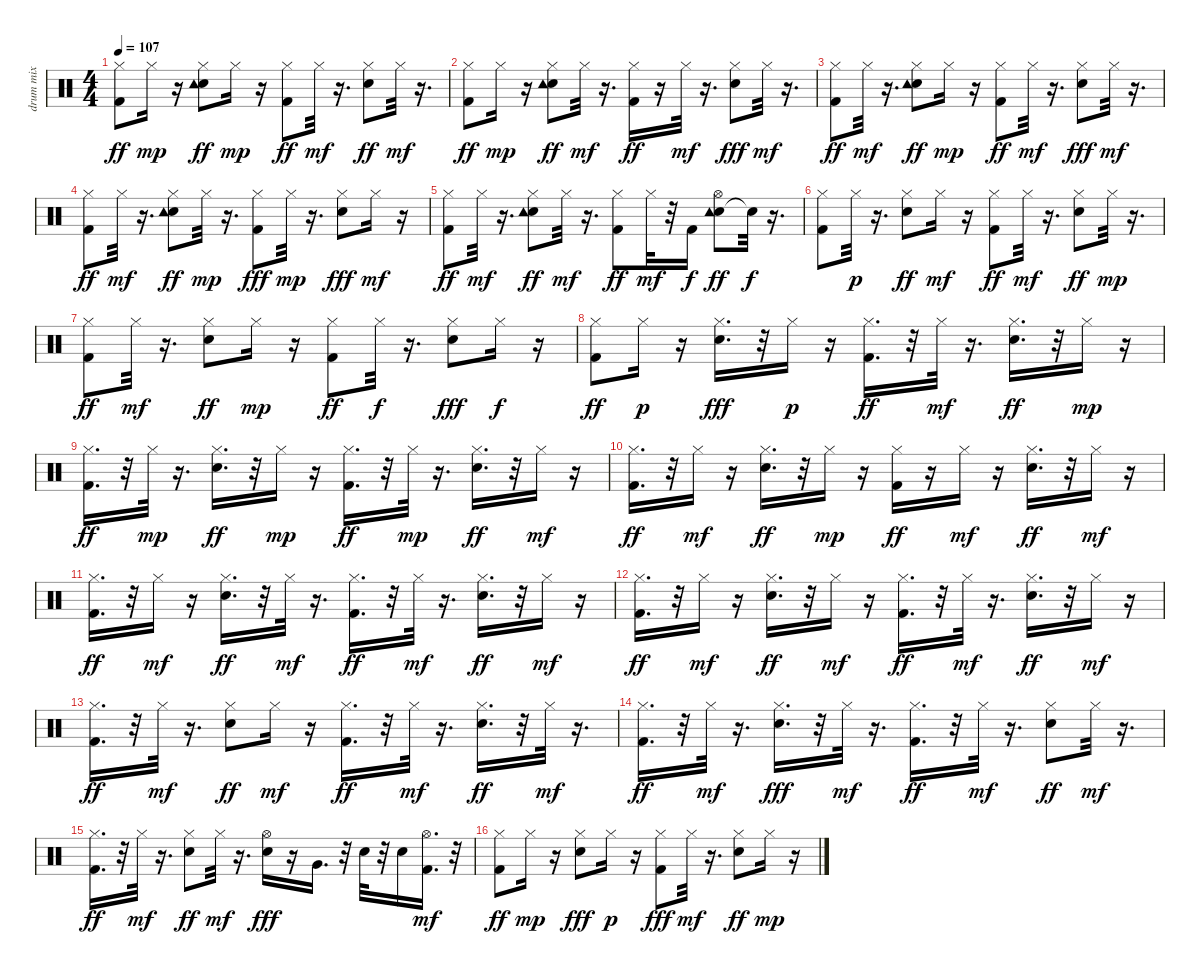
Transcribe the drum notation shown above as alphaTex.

\track ("drum mix" "drum mix") {instrument percussion}
\staff {score}
\articulation defaults
\ts (4 4)
\tempo 107
\clef neutral
\ks c
("Kick (hit) 2" "Hi-Hat (closed)").8{dy ff} "Hi-Hat (closed)".16{dy mp} r.16 ("Electric Snare (hit)" "Hi-Hat (closed)" "Tambourine (hit)").8{dy ff} "Hi-Hat (closed)".16{dy mp} r.16 ("Kick (hit) 2" "Hi-Hat (closed)").8{dy ff} "Hi-Hat (closed)".32{dy mf} r.16{d} ("Electric Snare (hit)" "Hi-Hat (closed)").8{dy ff} "Hi-Hat (closed)".32{dy mf} r.16{d} |
("Kick (hit) 2" "Hi-Hat (closed)").8{dy ff} "Hi-Hat (closed)".16{dy mp} r.16 ("Electric Snare (hit)" "Hi-Hat (closed)" "Tambourine (hit)").8{dy ff} "Hi-Hat (closed)".32{dy mf} r.16{d} ("Kick (hit) 2" "Hi-Hat (closed)").16{dy ff} r.16 "Hi-Hat (closed)".32{dy mf} r.16{d} ("Electric Snare (hit)" "Hi-Hat (closed)").8{dy fff} "Hi-Hat (closed)".32{dy mf} r.16{d} |
("Kick (hit) 2" "Hi-Hat (closed)").8{dy ff} "Hi-Hat (closed)".32{dy mf} r.16{d} ("Electric Snare (hit)" "Hi-Hat (closed)" "Tambourine (hit)").8{dy ff} "Hi-Hat (closed)".16{dy mp} r.16 ("Kick (hit) 2" "Hi-Hat (closed)").8{dy ff} "Hi-Hat (closed)".32{dy mf} r.16{d} ("Electric Snare (hit)" "Hi-Hat (closed)").8{dy fff} "Hi-Hat (closed)".32{dy mf} r.16{d} |
("Kick (hit) 2" "Hi-Hat (closed)").8{dy ff} "Hi-Hat (closed)".32{dy mf} r.16{d} ("Electric Snare (hit)" "Hi-Hat (closed)" "Tambourine (hit)").8{dy ff} "Hi-Hat (closed)".32{dy mp} r.16{d} ("Kick (hit) 2" "Hi-Hat (closed)").8{dy fff} "Hi-Hat (closed)".32{dy mp} r.16{d} ("Electric Snare (hit)" "Hi-Hat (closed)").8{dy fff} "Hi-Hat (closed)".16{dy mf} r.16 |
("Kick (hit) 2" "Hi-Hat (closed)").8{dy ff} "Hi-Hat (closed)".32{dy mf} r.16{d} ("Electric Snare (hit)" "Hi-Hat (closed)" "Tambourine (hit)").8{dy ff} "Hi-Hat (closed)".32{dy mf} r.16{d} ("Kick (hit) 2" "Hi-Hat (closed)").8{dy ff} "Hi-Hat (closed)".32{dy mf} r.32 "Kick (hit) 2".16{dy f} ("Electric Snare (hit)" "Hi-Hat (open)" "Tambourine (hit)").8{dy ff} "Snare (hit)"{t}.32{dy f} r.16{d} |
("Kick (hit) 2" "Hi-Hat (closed)").8 "Hi-Hat (closed)".32{dy p} r.16{d} ("Electric Snare (hit)" "Hi-Hat (closed)").8{dy ff} "Hi-Hat (closed)".16{dy mf} r.16 ("Kick (hit) 2" "Hi-Hat (closed)").8{dy ff} "Hi-Hat (closed)".32{dy mf} r.16{d} ("Electric Snare (hit)" "Hi-Hat (closed)").8{dy ff} "Hi-Hat (closed)".32{dy mp} r.16{d} |
("Kick (hit) 2" "Hi-Hat (closed)").8{dy ff} "Hi-Hat (closed)".32{dy mf} r.16{d} ("Electric Snare (hit)" "Hi-Hat (closed)").8{dy ff} "Hi-Hat (closed)".16{dy mp} r.16 ("Kick (hit) 2" "Hi-Hat (closed)").8{dy ff} "Hi-Hat (closed)".32{dy f} r.16{d} ("Electric Snare (hit)" "Hi-Hat (closed)").8{dy fff} "Hi-Hat (closed)".16{dy f} r.16 |
("Hi-Hat (closed)" "Kick (hit) 2").8{dy ff} "Hi-Hat (closed)".16{dy p} r.16 ("Electric Snare (hit)" "Hi-Hat (closed)").16{d dy fff} r.32 "Hi-Hat (closed)".16{dy p} r.16 ("Kick (hit) 2" "Hi-Hat (closed)").16{d dy ff} r.32 "Hi-Hat (closed)".32{dy mf} r.16{d} ("Electric Snare (hit)" "Hi-Hat (closed)").16{d dy ff} r.32 "Hi-Hat (closed)".16{dy mp} r.16 |
("Kick (hit) 2" "Hi-Hat (closed)").16{d dy ff} r.32 "Hi-Hat (closed)".32{dy mp} r.16{d} ("Electric Snare (hit)" "Hi-Hat (closed)").16{d dy ff} r.32 "Hi-Hat (closed)".16{dy mp} r.16 ("Kick (hit) 2" "Hi-Hat (closed)").16{d dy ff} r.32 "Hi-Hat (closed)".32{dy mp} r.16{d} ("Electric Snare (hit)" "Hi-Hat (closed)").16{d dy ff} r.32 "Hi-Hat (closed)".16{dy mf} r.16 |
("Kick (hit) 2" "Hi-Hat (closed)").16{d dy ff} r.32 "Hi-Hat (closed)".16{dy mf} r.16 ("Electric Snare (hit)" "Hi-Hat (closed)").16{d dy ff} r.32 "Hi-Hat (closed)".16{dy mp} r.16 ("Kick (hit) 2" "Hi-Hat (closed)").16{dy ff} r.16 "Hi-Hat (closed)".16{dy mf} r.16 ("Electric Snare (hit)" "Hi-Hat (closed)").16{d dy ff} r.32 "Hi-Hat (closed)".16{dy mf} r.16 |
("Kick (hit) 2" "Hi-Hat (closed)").16{d dy ff} r.32 "Hi-Hat (closed)".16{dy mf} r.16 ("Electric Snare (hit)" "Hi-Hat (closed)").16{d dy ff} r.32 "Hi-Hat (closed)".32{dy mf} r.16{d} ("Kick (hit) 2" "Hi-Hat (closed)").16{d dy ff} r.32 "Hi-Hat (closed)".32{dy mf} r.16{d} ("Electric Snare (hit)" "Hi-Hat (closed)").16{d dy ff} r.32 "Hi-Hat (closed)".16{dy mf} r.16 |
("Kick (hit) 2" "Hi-Hat (closed)").16{d dy ff} r.32 "Hi-Hat (closed)".16{dy mf} r.16 ("Electric Snare (hit)" "Hi-Hat (closed)").16{d dy ff} r.32 "Hi-Hat (closed)".16{dy mf} r.16 ("Kick (hit) 2" "Hi-Hat (closed)").16{d dy ff} r.32 "Hi-Hat (closed)".32{dy mf} r.16{d} ("Electric Snare (hit)" "Hi-Hat (closed)").16{d dy ff} r.32 "Hi-Hat (closed)".16{dy mf} r.16 |
("Kick (hit) 2" "Hi-Hat (closed)").16{d dy ff} r.32 "Hi-Hat (closed)".32{dy mf} r.16{d} ("Electric Snare (hit)" "Hi-Hat (closed)").8{dy ff} "Hi-Hat (closed)".16{dy mf} r.16 ("Kick (hit) 2" "Hi-Hat (closed)").16{d dy ff} r.32 "Hi-Hat (closed)".32{dy mf} r.16{d} ("Electric Snare (hit)" "Hi-Hat (closed)").16{d dy ff} r.32 "Hi-Hat (closed)".32{dy mf} r.16{d} |
("Kick (hit) 2" "Hi-Hat (closed)").16{d dy ff} r.32 "Hi-Hat (closed)".32{dy mf} r.16{d} ("Electric Snare (hit)" "Hi-Hat (closed)").16{d dy fff} r.32 "Hi-Hat (closed)".32{dy mf} r.16{d} ("Kick (hit) 2" "Hi-Hat (closed)").16{d dy ff} r.32 "Hi-Hat (closed)".32{dy mf} r.16{d} ("Electric Snare (hit)" "Hi-Hat (closed)").8{dy ff} "Hi-Hat (closed)".32{dy mf} r.16{d} |
("Kick (hit) 2" "Hi-Hat (closed)").16{d dy ff} r.32 "Hi-Hat (closed)".32{dy mf} r.16{d} ("Electric Snare (hit)" "Hi-Hat (closed)").8{dy ff} "Hi-Hat (closed)".32{dy mf} r.16{d} ("Electric Snare (hit)" "Hi-Hat (open)").16{dy fff} r.16 "Very Low Tom (hit)".16{d} r.32 "Electric Snare (hit)".32 r.32 "Electric Snare (hit)".16 ("Kick (hit) 2" "Hi-Hat (open)").16{d dy mf} r.32 |
("Kick (hit) 2" "Hi-Hat (closed)").8{dy ff} "Hi-Hat (closed)".16{dy mp} r.16 ("Electric Snare (hit)" "Hi-Hat (closed)").8{dy fff} "Hi-Hat (closed)".16{dy p} r.16 ("Kick (hit) 2" "Hi-Hat (closed)").8{dy fff} "Hi-Hat (closed)".32{dy mf} r.16{d} ("Electric Snare (hit)" "Hi-Hat (closed)").8{dy ff} "Hi-Hat (closed)".16{dy mp} r.16
